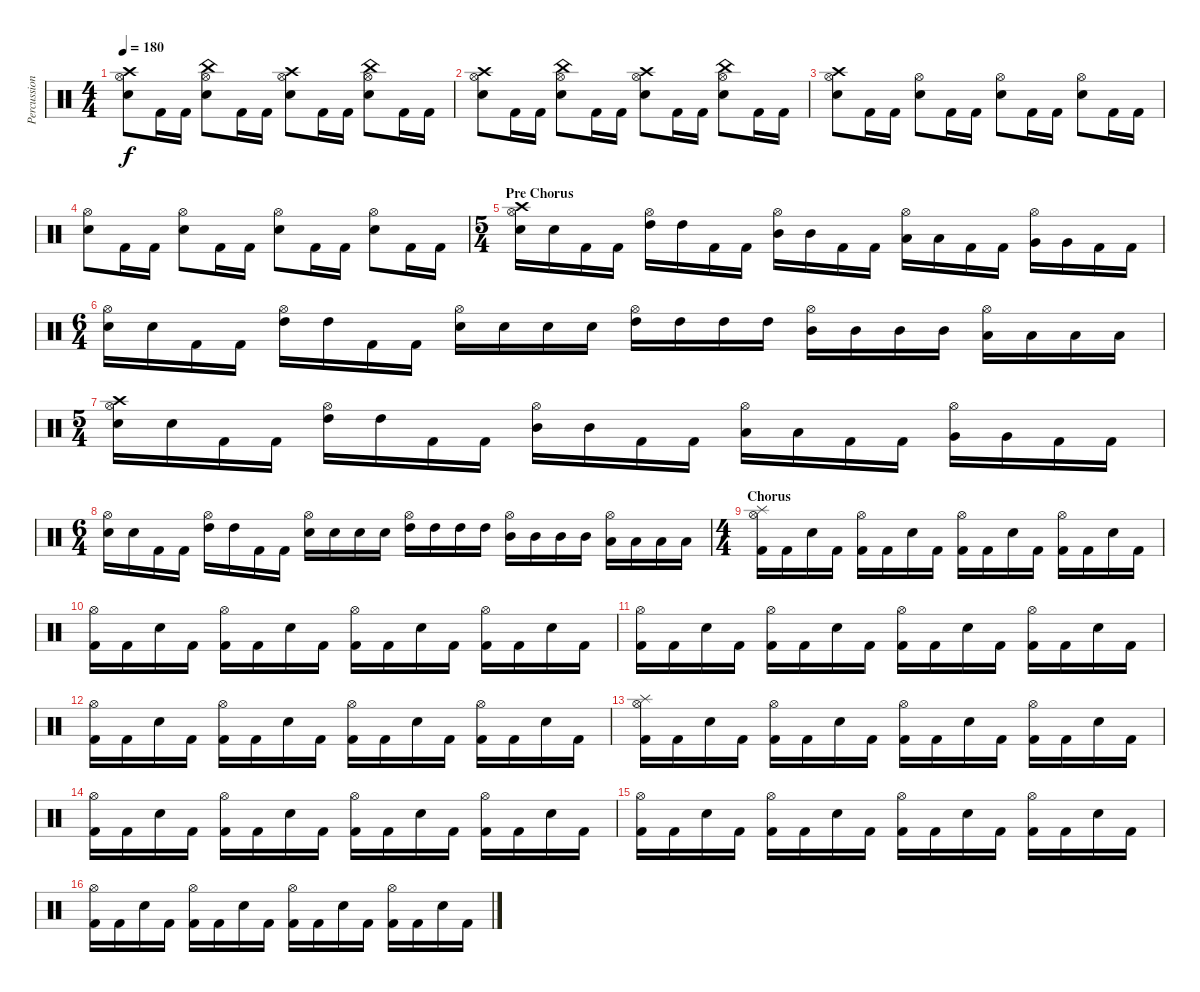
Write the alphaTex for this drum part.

\track ("Percussions" "Percussion") {instrument percussion}
\staff {score}
\articulation defaults
\ts (4 4)
\tempo 180
\clef neutral
\ks c
("Crash high (hit)" "Hi-Hat (open)" "Electric Snare (hit)").8{dy f} "Kick (hit) 2".16 "Kick (hit) 2".16 ("China (hit)" "Hi-Hat (open)" "Electric Snare (hit)").8 "Kick (hit) 2".16 "Kick (hit) 2".16 ("Crash high (hit)" "Hi-Hat (open)" "Electric Snare (hit)").8 "Kick (hit) 2".16 "Kick (hit) 2".16 ("China (hit)" "Hi-Hat (open)" "Electric Snare (hit)").8 "Kick (hit) 2".16 "Kick (hit) 2".16 |
("Crash high (hit)" "Hi-Hat (open)" "Electric Snare (hit)").8 "Kick (hit) 2".16 "Kick (hit) 2".16 ("China (hit)" "Hi-Hat (open)" "Electric Snare (hit)").8 "Kick (hit) 2".16 "Kick (hit) 2".16 ("Crash high (hit)" "Hi-Hat (open)" "Electric Snare (hit)").8 "Kick (hit) 2".16 "Kick (hit) 2".16 ("China (hit)" "Hi-Hat (open)" "Electric Snare (hit)").8 "Kick (hit) 2".16 "Kick (hit) 2".16 |
("Crash high (hit)" "Hi-Hat (open)" "Electric Snare (hit)").8 "Kick (hit) 2".16 "Kick (hit) 2".16 ("Hi-Hat (open)" "Electric Snare (hit)").8 "Kick (hit) 2".16 "Kick (hit) 2".16 ("Hi-Hat (open)" "Electric Snare (hit)").8 "Kick (hit) 2".16 "Kick (hit) 2".16 ("Hi-Hat (open)" "Electric Snare (hit)").8 "Kick (hit) 2".16 "Kick (hit) 2".16 |
("Hi-Hat (open)" "Electric Snare (hit)").8 "Kick (hit) 2".16 "Kick (hit) 2".16 ("Hi-Hat (open)" "Electric Snare (hit)").8 "Kick (hit) 2".16 "Kick (hit) 2".16 ("Hi-Hat (open)" "Electric Snare (hit)").8 "Kick (hit) 2".16 "Kick (hit) 2".16 ("Hi-Hat (open)" "Electric Snare (hit)").8 "Kick (hit) 2".16 "Kick (hit) 2".16 |
\ts (5 4)
\section ("" "Pre Chorus")
("Crash high (hit)" "Hi-Hat (open)" "Electric Snare (hit)").16 "Electric Snare (hit)".16 "Kick (hit) 2".16 "Kick (hit) 2".16 ("Hi-Hat (open)" "High Tom (hit)").16 "High Tom (hit)".16 "Kick (hit) 2".16 "Kick (hit) 2".16 ("Hi-Hat (open)" "Mid Tom (hit)").16 "Mid Tom (hit)".16 "Kick (hit) 2".16 "Kick (hit) 2".16 ("Hi-Hat (open)" "Low Tom (hit)").16 "Low Tom (hit)".16 "Kick (hit) 2".16 "Kick (hit) 2".16 ("Hi-Hat (open)" "Very Low Tom (hit)").16 "Very Low Tom (hit)".16 "Kick (hit) 2".16 "Kick (hit) 2".16 |
\ts (6 4)
("Hi-Hat (open)" "Electric Snare (hit)").16 "Electric Snare (hit)".16 "Kick (hit) 2".16 "Kick (hit) 2".16 ("Hi-Hat (open)" "High Tom (hit)").16 "High Tom (hit)".16 "Kick (hit) 2".16 "Kick (hit) 2".16 ("Hi-Hat (open)" "Electric Snare (hit)").16 "Electric Snare (hit)".16 "Electric Snare (hit)".16 "Electric Snare (hit)".16 ("Hi-Hat (open)" "High Tom (hit)").16 "High Tom (hit)".16 "High Tom (hit)".16 "High Tom (hit)".16 ("Hi-Hat (open)" "Mid Tom (hit)").16 "Mid Tom (hit)".16 "Mid Tom (hit)".16 "Mid Tom (hit)".16 ("Hi-Hat (open)" "Low Tom (hit)").16 "Low Tom (hit)".16 "Low Tom (hit)".16 "Low Tom (hit)".16 |
\ts (5 4)
("Crash high (hit)" "Hi-Hat (open)" "Electric Snare (hit)").16 "Electric Snare (hit)".16 "Kick (hit) 2".16 "Kick (hit) 2".16 ("Hi-Hat (open)" "High Tom (hit)").16 "High Tom (hit)".16 "Kick (hit) 2".16 "Kick (hit) 2".16 ("Hi-Hat (open)" "Mid Tom (hit)").16 "Mid Tom (hit)".16 "Kick (hit) 2".16 "Kick (hit) 2".16 ("Hi-Hat (open)" "Low Tom (hit)").16 "Low Tom (hit)".16 "Kick (hit) 2".16 "Kick (hit) 2".16 ("Hi-Hat (open)" "Very Low Tom (hit)").16 "Very Low Tom (hit)".16 "Kick (hit) 2".16 "Kick (hit) 2".16 |
\ts (6 4)
("Hi-Hat (open)" "Electric Snare (hit)").16 "Electric Snare (hit)".16 "Kick (hit) 2".16 "Kick (hit) 2".16 ("Hi-Hat (open)" "High Tom (hit)").16 "High Tom (hit)".16 "Kick (hit) 2".16 "Kick (hit) 2".16 ("Hi-Hat (open)" "Electric Snare (hit)").16 "Electric Snare (hit)".16 "Electric Snare (hit)".16 "Electric Snare (hit)".16 ("Hi-Hat (open)" "High Tom (hit)").16 "High Tom (hit)".16 "High Tom (hit)".16 "High Tom (hit)".16 ("Hi-Hat (open)" "Mid Tom (hit)").16 "Mid Tom (hit)".16 "Mid Tom (hit)".16 "Mid Tom (hit)".16 ("Hi-Hat (open)" "Low Tom (hit)").16 "Low Tom (hit)".16 "Low Tom (hit)".16 "Low Tom (hit)".16 |
\ts (4 4)
\section ("" "Chorus")
("Splash (hit)" "Hi-Hat (open)" "Kick (hit) 2").16 "Kick (hit) 2".16 "Electric Snare (hit)".16 "Kick (hit) 2".16 ("Hi-Hat (open)" "Kick (hit) 2").16 "Kick (hit) 2".16 "Electric Snare (hit)".16 "Kick (hit) 2".16 ("Hi-Hat (open)" "Kick (hit) 2").16 "Kick (hit) 2".16 "Electric Snare (hit)".16 "Kick (hit) 2".16 ("Hi-Hat (open)" "Kick (hit) 2").16 "Kick (hit) 2".16 "Electric Snare (hit)".16 "Kick (hit) 2".16 |
("Hi-Hat (open)" "Kick (hit) 2").16 "Kick (hit) 2".16 "Electric Snare (hit)".16 "Kick (hit) 2".16 ("Hi-Hat (open)" "Kick (hit) 2").16 "Kick (hit) 2".16 "Electric Snare (hit)".16 "Kick (hit) 2".16 ("Hi-Hat (open)" "Kick (hit) 2").16 "Kick (hit) 2".16 "Electric Snare (hit)".16 "Kick (hit) 2".16 ("Hi-Hat (open)" "Kick (hit) 2").16 "Kick (hit) 2".16 "Electric Snare (hit)".16 "Kick (hit) 2".16 |
("Hi-Hat (open)" "Kick (hit) 2").16 "Kick (hit) 2".16 "Electric Snare (hit)".16 "Kick (hit) 2".16 ("Hi-Hat (open)" "Kick (hit) 2").16 "Kick (hit) 2".16 "Electric Snare (hit)".16 "Kick (hit) 2".16 ("Hi-Hat (open)" "Kick (hit) 2").16 "Kick (hit) 2".16 "Electric Snare (hit)".16 "Kick (hit) 2".16 ("Hi-Hat (open)" "Kick (hit) 2").16 "Kick (hit) 2".16 "Electric Snare (hit)".16 "Kick (hit) 2".16 |
("Hi-Hat (open)" "Kick (hit) 2").16 "Kick (hit) 2".16 "Electric Snare (hit)".16 "Kick (hit) 2".16 ("Hi-Hat (open)" "Kick (hit) 2").16 "Kick (hit) 2".16 "Electric Snare (hit)".16 "Kick (hit) 2".16 ("Hi-Hat (open)" "Kick (hit) 2").16 "Kick (hit) 2".16 "Electric Snare (hit)".16 "Kick (hit) 2".16 ("Hi-Hat (open)" "Kick (hit) 2").16 "Kick (hit) 2".16 "Electric Snare (hit)".16 "Kick (hit) 2".16 |
("Splash (hit)" "Hi-Hat (open)" "Kick (hit) 2").16 "Kick (hit) 2".16 "Electric Snare (hit)".16 "Kick (hit) 2".16 ("Hi-Hat (open)" "Kick (hit) 2").16 "Kick (hit) 2".16 "Electric Snare (hit)".16 "Kick (hit) 2".16 ("Hi-Hat (open)" "Kick (hit) 2").16 "Kick (hit) 2".16 "Electric Snare (hit)".16 "Kick (hit) 2".16 ("Hi-Hat (open)" "Kick (hit) 2").16 "Kick (hit) 2".16 "Electric Snare (hit)".16 "Kick (hit) 2".16 |
("Hi-Hat (open)" "Kick (hit) 2").16 "Kick (hit) 2".16 "Electric Snare (hit)".16 "Kick (hit) 2".16 ("Hi-Hat (open)" "Kick (hit) 2").16 "Kick (hit) 2".16 "Electric Snare (hit)".16 "Kick (hit) 2".16 ("Hi-Hat (open)" "Kick (hit) 2").16 "Kick (hit) 2".16 "Electric Snare (hit)".16 "Kick (hit) 2".16 ("Hi-Hat (open)" "Kick (hit) 2").16 "Kick (hit) 2".16 "Electric Snare (hit)".16 "Kick (hit) 2".16 |
("Hi-Hat (open)" "Kick (hit) 2").16 "Kick (hit) 2".16 "Electric Snare (hit)".16 "Kick (hit) 2".16 ("Hi-Hat (open)" "Kick (hit) 2").16 "Kick (hit) 2".16 "Electric Snare (hit)".16 "Kick (hit) 2".16 ("Hi-Hat (open)" "Kick (hit) 2").16 "Kick (hit) 2".16 "Electric Snare (hit)".16 "Kick (hit) 2".16 ("Hi-Hat (open)" "Kick (hit) 2").16 "Kick (hit) 2".16 "Electric Snare (hit)".16 "Kick (hit) 2".16 |
("Hi-Hat (open)" "Kick (hit) 2").16 "Kick (hit) 2".16 "Electric Snare (hit)".16 "Kick (hit) 2".16 ("Hi-Hat (open)" "Kick (hit) 2").16 "Kick (hit) 2".16 "Electric Snare (hit)".16 "Kick (hit) 2".16 ("Hi-Hat (open)" "Kick (hit) 2").16 "Kick (hit) 2".16 "Electric Snare (hit)".16 "Kick (hit) 2".16 ("Hi-Hat (open)" "Kick (hit) 2").16 "Kick (hit) 2".16 "Electric Snare (hit)".16 "Kick (hit) 2".16
